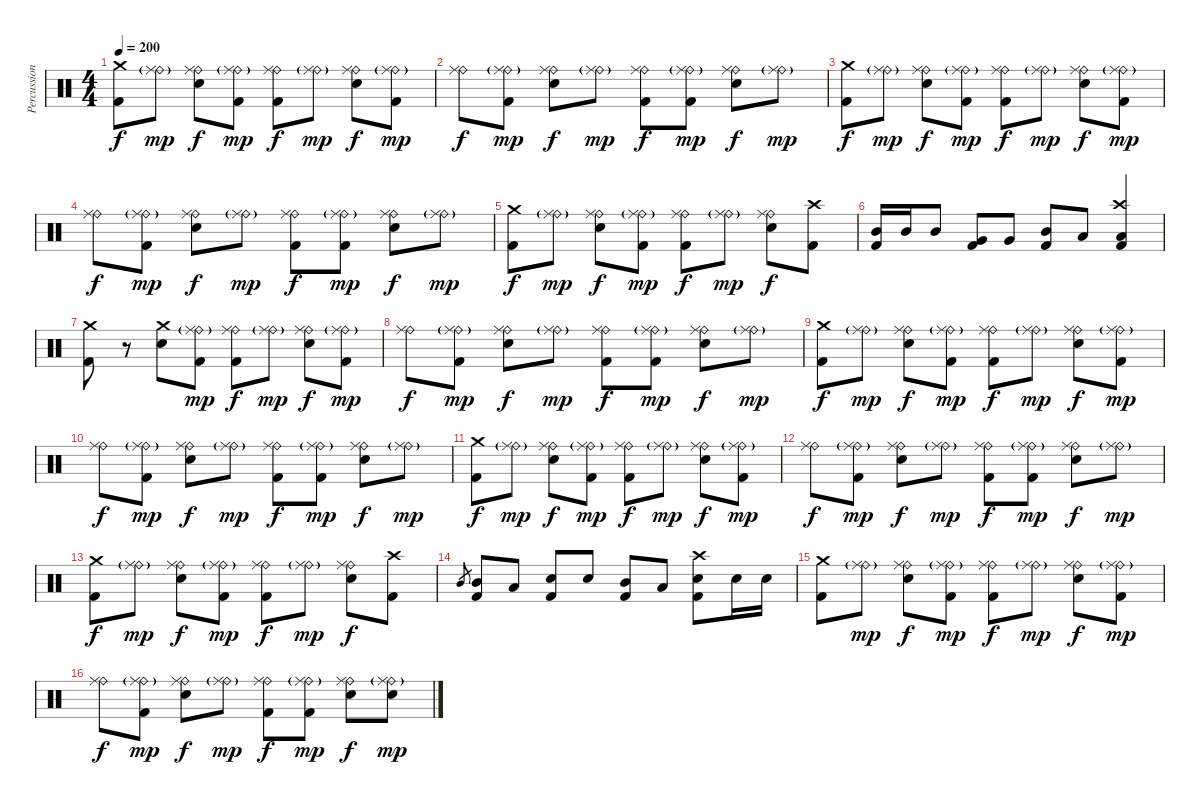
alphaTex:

\track ("Percussion" "Percussion") {instrument percussion}
\staff {score}
\articulation defaults
\ts (4 4)
\tempo 200
\clef neutral
\ks c
("Crash medium (hit)" "Kick (hit) 2").8{dy f} ("Ride (bell)"{g} "Ride (middle)").8{dy mp} ("Ride (bell)" "Ride (middle)" "Electric Snare (hit)").8{dy f} ("Ride (bell)"{g} "Ride (middle)" "Kick (hit) 2").8{dy mp} ("Ride (bell)" "Ride (middle)" "Kick (hit) 2").8{dy f} ("Ride (bell)"{g} "Ride (middle)").8{dy mp} ("Ride (bell)" "Ride (middle)" "Electric Snare (hit)").8{dy f} ("Ride (bell)"{g} "Ride (middle)" "Kick (hit) 2").8{dy mp} |
("Ride (bell)" "Ride (middle)").8{dy f} ("Ride (bell)"{g} "Ride (middle)" "Kick (hit) 2").8{dy mp} ("Ride (bell)" "Ride (middle)" "Electric Snare (hit)").8{dy f} ("Ride (bell)"{g} "Ride (middle)").8{dy mp} ("Ride (bell)" "Ride (middle)" "Kick (hit) 2").8{dy f} ("Ride (bell)"{g} "Ride (middle)" "Kick (hit) 2").8{dy mp} ("Ride (bell)" "Ride (middle)" "Electric Snare (hit)").8{dy f} ("Ride (bell)"{g} "Ride (middle)").8{dy mp} |
("Crash medium (hit)" "Kick (hit) 2").8{dy f} ("Ride (bell)"{g} "Ride (middle)").8{dy mp} ("Ride (bell)" "Ride (middle)" "Electric Snare (hit)").8{dy f} ("Ride (bell)"{g} "Ride (middle)" "Kick (hit) 2").8{dy mp} ("Ride (bell)" "Ride (middle)" "Kick (hit) 2").8{dy f} ("Ride (bell)"{g} "Ride (middle)").8{dy mp} ("Ride (bell)" "Ride (middle)" "Electric Snare (hit)").8{dy f} ("Ride (bell)"{g} "Ride (middle)" "Kick (hit) 2").8{dy mp} |
("Ride (bell)" "Ride (middle)").8{dy f} ("Ride (bell)"{g} "Ride (middle)" "Kick (hit) 2").8{dy mp} ("Ride (bell)" "Ride (middle)" "Electric Snare (hit)").8{dy f} ("Ride (bell)"{g} "Ride (middle)").8{dy mp} ("Ride (bell)" "Ride (middle)" "Kick (hit) 2").8{dy f} ("Ride (bell)"{g} "Ride (middle)" "Kick (hit) 2").8{dy mp} ("Ride (bell)" "Ride (middle)" "Electric Snare (hit)").8{dy f} ("Ride (bell)"{g} "Ride (middle)").8{dy mp} |
("Crash medium (hit)" "Kick (hit) 2").8{dy f} ("Ride (bell)"{g} "Ride (middle)").8{dy mp} ("Ride (bell)" "Ride (middle)" "Electric Snare (hit)").8{dy f} ("Ride (bell)"{g} "Ride (middle)" "Kick (hit) 2").8{dy mp} ("Ride (bell)" "Ride (middle)" "Kick (hit) 2").8{dy f} ("Ride (bell)"{g} "Ride (middle)").8{dy mp} ("Ride (bell)" "Ride (middle)" "Electric Snare (hit)").8{dy f} ("Crash high (hit)" "Kick (hit) 2").8 |
("Mid Tom (hit)" "Kick (hit) 2").16 "Mid Tom (hit)".16 "Mid Tom (hit)".8 ("Very Low Tom (hit)" "Kick (hit) 2").8 "Very Low Tom (hit)".8 ("Mid Tom (hit)" "Kick (hit) 2").8 "Low Tom (hit)".8 ("Crash high (hit)" "Low Floor Tom (hit)" "Kick (hit) 2").4 |
("Crash medium (hit)" "Kick (hit) 2").8 r.8 ("Crash medium (hit)" "Electric Snare (hit)").8 ("Ride (bell)"{g} "Ride (middle)" "Kick (hit) 2").8{dy mp} ("Ride (bell)" "Ride (middle)" "Kick (hit) 2").8{dy f} ("Ride (bell)"{g} "Ride (middle)").8{dy mp} ("Ride (bell)" "Ride (middle)" "Electric Snare (hit)").8{dy f} ("Ride (bell)"{g} "Ride (middle)" "Kick (hit) 2").8{dy mp} |
("Ride (bell)" "Ride (middle)").8{dy f} ("Ride (bell)"{g} "Ride (middle)" "Kick (hit) 2").8{dy mp} ("Ride (bell)" "Ride (middle)" "Electric Snare (hit)").8{dy f} ("Ride (bell)"{g} "Ride (middle)").8{dy mp} ("Ride (bell)" "Ride (middle)" "Kick (hit) 2").8{dy f} ("Ride (bell)"{g} "Ride (middle)" "Kick (hit) 2").8{dy mp} ("Ride (bell)" "Ride (middle)" "Electric Snare (hit)").8{dy f} ("Ride (bell)"{g} "Ride (middle)").8{dy mp} |
("Crash medium (hit)" "Kick (hit) 2").8{dy f} ("Ride (bell)"{g} "Ride (middle)").8{dy mp} ("Ride (bell)" "Ride (middle)" "Electric Snare (hit)").8{dy f} ("Ride (bell)"{g} "Ride (middle)" "Kick (hit) 2").8{dy mp} ("Ride (bell)" "Ride (middle)" "Kick (hit) 2").8{dy f} ("Ride (bell)"{g} "Ride (middle)").8{dy mp} ("Ride (bell)" "Ride (middle)" "Electric Snare (hit)").8{dy f} ("Ride (bell)"{g} "Ride (middle)" "Kick (hit) 2").8{dy mp} |
("Ride (bell)" "Ride (middle)").8{dy f} ("Ride (bell)"{g} "Ride (middle)" "Kick (hit) 2").8{dy mp} ("Ride (bell)" "Ride (middle)" "Electric Snare (hit)").8{dy f} ("Ride (bell)"{g} "Ride (middle)").8{dy mp} ("Ride (bell)" "Ride (middle)" "Kick (hit) 2").8{dy f} ("Ride (bell)"{g} "Ride (middle)" "Kick (hit) 2").8{dy mp} ("Ride (bell)" "Ride (middle)" "Electric Snare (hit)").8{dy f} ("Ride (bell)"{g} "Ride (middle)").8{dy mp} |
("Crash medium (hit)" "Kick (hit) 2").8{dy f} ("Ride (bell)"{g} "Ride (middle)").8{dy mp} ("Ride (bell)" "Ride (middle)" "Electric Snare (hit)").8{dy f} ("Ride (bell)"{g} "Ride (middle)" "Kick (hit) 2").8{dy mp} ("Ride (bell)" "Ride (middle)" "Kick (hit) 2").8{dy f} ("Ride (bell)"{g} "Ride (middle)").8{dy mp} ("Ride (bell)" "Ride (middle)" "Electric Snare (hit)").8{dy f} ("Ride (bell)"{g} "Ride (middle)" "Kick (hit) 2").8{dy mp} |
("Ride (bell)" "Ride (middle)").8{dy f} ("Ride (bell)"{g} "Ride (middle)" "Kick (hit) 2").8{dy mp} ("Ride (bell)" "Ride (middle)" "Electric Snare (hit)").8{dy f} ("Ride (bell)"{g} "Ride (middle)").8{dy mp} ("Ride (bell)" "Ride (middle)" "Kick (hit) 2").8{dy f} ("Ride (bell)"{g} "Ride (middle)" "Kick (hit) 2").8{dy mp} ("Ride (bell)" "Ride (middle)" "Electric Snare (hit)").8{dy f} ("Ride (bell)"{g} "Ride (middle)").8{dy mp} |
("Crash medium (hit)" "Kick (hit) 2").8{dy f} ("Ride (bell)"{g} "Ride (middle)").8{dy mp} ("Ride (bell)" "Ride (middle)" "Electric Snare (hit)").8{dy f} ("Ride (bell)"{g} "Ride (middle)" "Kick (hit) 2").8{dy mp} ("Ride (bell)" "Ride (middle)" "Kick (hit) 2").8{dy f} ("Ride (bell)"{g} "Ride (middle)").8{dy mp} ("Ride (bell)" "Ride (middle)" "Electric Snare (hit)").8{dy f} ("Crash high (hit)" "Kick (hit) 2").8 |
"Mid Tom (hit)".8{gr} ("Mid Tom (hit)" "Kick (hit) 2").8 "Low Tom (hit)".8 ("Electric Snare (hit)" "Kick (hit) 2").8 "Electric Snare (hit)".8 ("Mid Tom (hit)" "Kick (hit) 2").8 "Low Tom (hit)".8 ("Crash high (hit)" "Electric Snare (hit)" "Kick (hit) 2").8 "Electric Snare (hit)".16 "Electric Snare (hit)".16 |
("Crash medium (hit)" "Kick (hit) 2").8 ("Ride (bell)"{g} "Ride (middle)").8{dy mp} ("Ride (bell)" "Ride (middle)" "Electric Snare (hit)").8{dy f} ("Ride (bell)"{g} "Ride (middle)" "Kick (hit) 2").8{dy mp} ("Ride (bell)" "Ride (middle)" "Kick (hit) 2").8{dy f} ("Ride (bell)"{g} "Ride (middle)").8{dy mp} ("Ride (bell)" "Ride (middle)" "Electric Snare (hit)").8{dy f} ("Ride (bell)"{g} "Ride (middle)" "Kick (hit) 2").8{dy mp} |
("Ride (bell)" "Ride (middle)").8{dy f} ("Ride (bell)"{g} "Ride (middle)" "Kick (hit) 2").8{dy mp} ("Ride (bell)" "Ride (middle)" "Electric Snare (hit)").8{dy f} ("Ride (bell)"{g} "Ride (middle)").8{dy mp} ("Ride (bell)" "Ride (middle)" "Kick (hit) 2").8{dy f} ("Ride (bell)"{g} "Ride (middle)" "Kick (hit) 2").8{dy mp} ("Ride (bell)" "Ride (middle)" "Electric Snare (hit)").8{dy f} ("Ride (bell)"{g} "Ride (middle)" "Electric Snare (hit)").8{dy mp}
